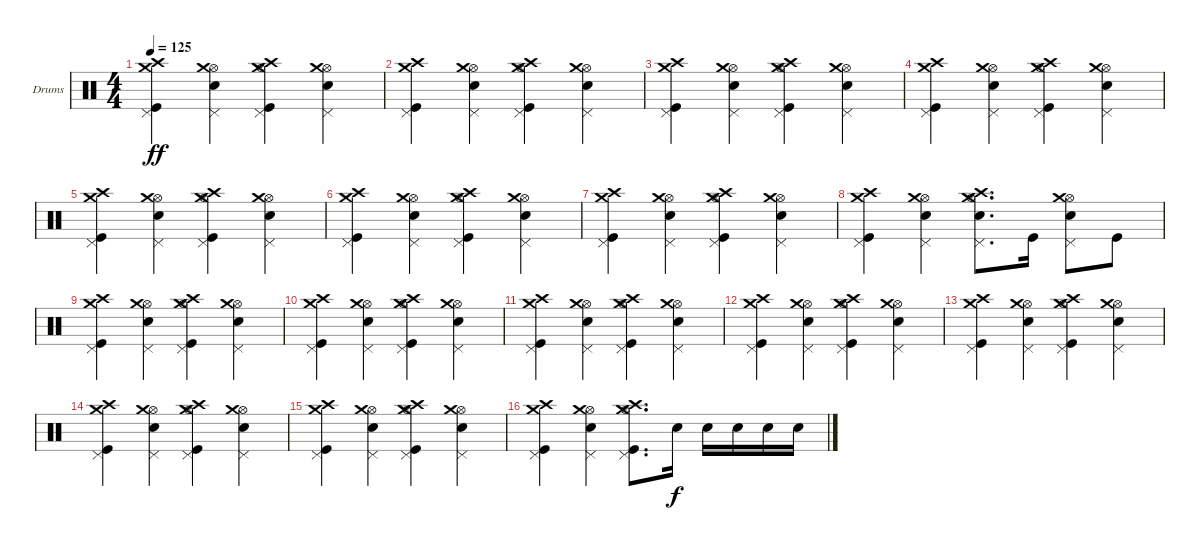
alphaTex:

\defaultSystemsLayout 4
\bracketExtendMode groupsimilarinstruments
\firstSystemTrackNameOrientation horizontal
\otherSystemsTrackNameOrientation horizontal
\track ("Drums" "Drums") {instrument percussion}
\staff {score}
\articulation defaults
\ts (4 4)
\tempo 125
\clef neutral
\ks c
("Kick (hit)" "Pedal Hi-Hat (hit)" "Crash medium (hit)" "Crash high (hit)").4{dy ff} ("Snare (hit) 2" "Pedal Hi-Hat (hit)" "Hi-Hat (open)" "Crash medium (hit)").4 ("Kick (hit)" "Pedal Hi-Hat (hit)" "Hi-Hat (open)" "Crash high (hit)" "Crash medium (hit)").4 ("Snare (hit) 2" "Pedal Hi-Hat (hit)" "Hi-Hat (open)" "Crash medium (hit)").4 |
("Kick (hit)" "Pedal Hi-Hat (hit)" "Crash medium (hit)" "Crash high (hit)").4 ("Snare (hit) 2" "Pedal Hi-Hat (hit)" "Hi-Hat (open)" "Crash medium (hit)").4 ("Kick (hit)" "Pedal Hi-Hat (hit)" "Hi-Hat (open)" "Crash high (hit)" "Crash medium (hit)").4 ("Snare (hit) 2" "Pedal Hi-Hat (hit)" "Hi-Hat (open)" "Crash medium (hit)").4 |
("Kick (hit)" "Pedal Hi-Hat (hit)" "Crash medium (hit)" "Crash high (hit)").4 ("Snare (hit) 2" "Pedal Hi-Hat (hit)" "Hi-Hat (open)" "Crash medium (hit)").4 ("Kick (hit)" "Pedal Hi-Hat (hit)" "Hi-Hat (open)" "Crash high (hit)" "Crash medium (hit)").4 ("Snare (hit) 2" "Pedal Hi-Hat (hit)" "Hi-Hat (open)" "Crash medium (hit)").4 |
("Kick (hit)" "Pedal Hi-Hat (hit)" "Crash medium (hit)" "Crash high (hit)").4 ("Snare (hit) 2" "Pedal Hi-Hat (hit)" "Hi-Hat (open)" "Crash medium (hit)").4 ("Kick (hit)" "Pedal Hi-Hat (hit)" "Hi-Hat (open)" "Crash high (hit)" "Crash medium (hit)").4 ("Snare (hit) 2" "Pedal Hi-Hat (hit)" "Hi-Hat (open)" "Crash medium (hit)").4 |
("Kick (hit)" "Pedal Hi-Hat (hit)" "Crash medium (hit)" "Crash high (hit)").4 ("Snare (hit) 2" "Pedal Hi-Hat (hit)" "Hi-Hat (open)" "Crash medium (hit)").4 ("Kick (hit)" "Pedal Hi-Hat (hit)" "Hi-Hat (open)" "Crash high (hit)" "Crash medium (hit)").4 ("Snare (hit) 2" "Pedal Hi-Hat (hit)" "Hi-Hat (open)" "Crash medium (hit)").4 |
("Kick (hit)" "Pedal Hi-Hat (hit)" "Crash medium (hit)" "Crash high (hit)").4 ("Snare (hit) 2" "Pedal Hi-Hat (hit)" "Hi-Hat (open)" "Crash medium (hit)").4 ("Kick (hit)" "Pedal Hi-Hat (hit)" "Hi-Hat (open)" "Crash high (hit)" "Crash medium (hit)").4 ("Snare (hit) 2" "Pedal Hi-Hat (hit)" "Hi-Hat (open)" "Crash medium (hit)").4 |
("Kick (hit)" "Pedal Hi-Hat (hit)" "Crash medium (hit)" "Crash high (hit)").4 ("Snare (hit) 2" "Pedal Hi-Hat (hit)" "Hi-Hat (open)" "Crash medium (hit)").4 ("Kick (hit)" "Pedal Hi-Hat (hit)" "Hi-Hat (open)" "Crash high (hit)" "Crash medium (hit)").4 ("Snare (hit) 2" "Pedal Hi-Hat (hit)" "Hi-Hat (open)" "Crash medium (hit)").4 |
("Kick (hit)" "Pedal Hi-Hat (hit)" "Crash medium (hit)" "Crash high (hit)").4 ("Snare (hit) 2" "Pedal Hi-Hat (hit)" "Hi-Hat (open)" "Crash medium (hit)").4 ("Pedal Hi-Hat (hit)" "Hi-Hat (open)" "Crash high (hit)" "Snare (hit) 2" "Crash medium (hit)").8{d} "Kick (hit)".16 ("Snare (hit) 2" "Pedal Hi-Hat (hit)" "Hi-Hat (open)" "Crash medium (hit)").8 "Kick (hit)".8 |
("Kick (hit)" "Pedal Hi-Hat (hit)" "Crash medium (hit)" "Crash high (hit)").4 ("Snare (hit) 2" "Pedal Hi-Hat (hit)" "Hi-Hat (open)" "Crash medium (hit)").4 ("Kick (hit)" "Pedal Hi-Hat (hit)" "Hi-Hat (open)" "Crash high (hit)" "Crash medium (hit)").4 ("Snare (hit) 2" "Pedal Hi-Hat (hit)" "Hi-Hat (open)" "Crash medium (hit)").4 |
("Kick (hit)" "Pedal Hi-Hat (hit)" "Crash medium (hit)" "Crash high (hit)").4 ("Snare (hit) 2" "Pedal Hi-Hat (hit)" "Hi-Hat (open)" "Crash medium (hit)").4 ("Kick (hit)" "Pedal Hi-Hat (hit)" "Hi-Hat (open)" "Crash high (hit)" "Crash medium (hit)").4 ("Snare (hit) 2" "Pedal Hi-Hat (hit)" "Hi-Hat (open)" "Crash medium (hit)").4 |
("Kick (hit)" "Pedal Hi-Hat (hit)" "Crash medium (hit)" "Crash high (hit)").4 ("Snare (hit) 2" "Pedal Hi-Hat (hit)" "Hi-Hat (open)" "Crash medium (hit)").4 ("Kick (hit)" "Pedal Hi-Hat (hit)" "Hi-Hat (open)" "Crash high (hit)" "Crash medium (hit)").4 ("Snare (hit) 2" "Pedal Hi-Hat (hit)" "Hi-Hat (open)" "Crash medium (hit)").4 |
("Kick (hit)" "Pedal Hi-Hat (hit)" "Crash medium (hit)" "Crash high (hit)").4 ("Snare (hit) 2" "Pedal Hi-Hat (hit)" "Hi-Hat (open)" "Crash medium (hit)").4 ("Kick (hit)" "Pedal Hi-Hat (hit)" "Hi-Hat (open)" "Crash high (hit)" "Crash medium (hit)").4 ("Snare (hit) 2" "Pedal Hi-Hat (hit)" "Hi-Hat (open)" "Crash medium (hit)").4 |
("Kick (hit)" "Pedal Hi-Hat (hit)" "Crash medium (hit)" "Crash high (hit)").4 ("Snare (hit) 2" "Pedal Hi-Hat (hit)" "Hi-Hat (open)" "Crash medium (hit)").4 ("Kick (hit)" "Pedal Hi-Hat (hit)" "Hi-Hat (open)" "Crash high (hit)" "Crash medium (hit)").4 ("Snare (hit) 2" "Pedal Hi-Hat (hit)" "Hi-Hat (open)" "Crash medium (hit)").4 |
("Kick (hit)" "Pedal Hi-Hat (hit)" "Crash medium (hit)" "Crash high (hit)").4 ("Snare (hit) 2" "Pedal Hi-Hat (hit)" "Hi-Hat (open)" "Crash medium (hit)").4 ("Kick (hit)" "Pedal Hi-Hat (hit)" "Hi-Hat (open)" "Crash high (hit)" "Crash medium (hit)").4 ("Snare (hit) 2" "Pedal Hi-Hat (hit)" "Hi-Hat (open)" "Crash medium (hit)").4 |
("Kick (hit)" "Pedal Hi-Hat (hit)" "Crash medium (hit)" "Crash high (hit)").4 ("Snare (hit) 2" "Pedal Hi-Hat (hit)" "Hi-Hat (open)" "Crash medium (hit)").4 ("Kick (hit)" "Pedal Hi-Hat (hit)" "Hi-Hat (open)" "Crash high (hit)" "Crash medium (hit)").4 ("Snare (hit) 2" "Pedal Hi-Hat (hit)" "Hi-Hat (open)" "Crash medium (hit)").4 |
("Kick (hit)" "Pedal Hi-Hat (hit)" "Crash medium (hit)" "Crash high (hit)").4 ("Snare (hit) 2" "Pedal Hi-Hat (hit)" "Hi-Hat (open)" "Crash medium (hit)").4 ("Kick (hit)" "Pedal Hi-Hat (hit)" "Hi-Hat (open)" "Crash high (hit)" "Crash medium (hit)").8{d} "Snare (hit) 2".16{dy f} "Snare (hit) 2".16 "Snare (hit) 2".16 "Snare (hit) 2".16 "Snare (hit) 2".16
